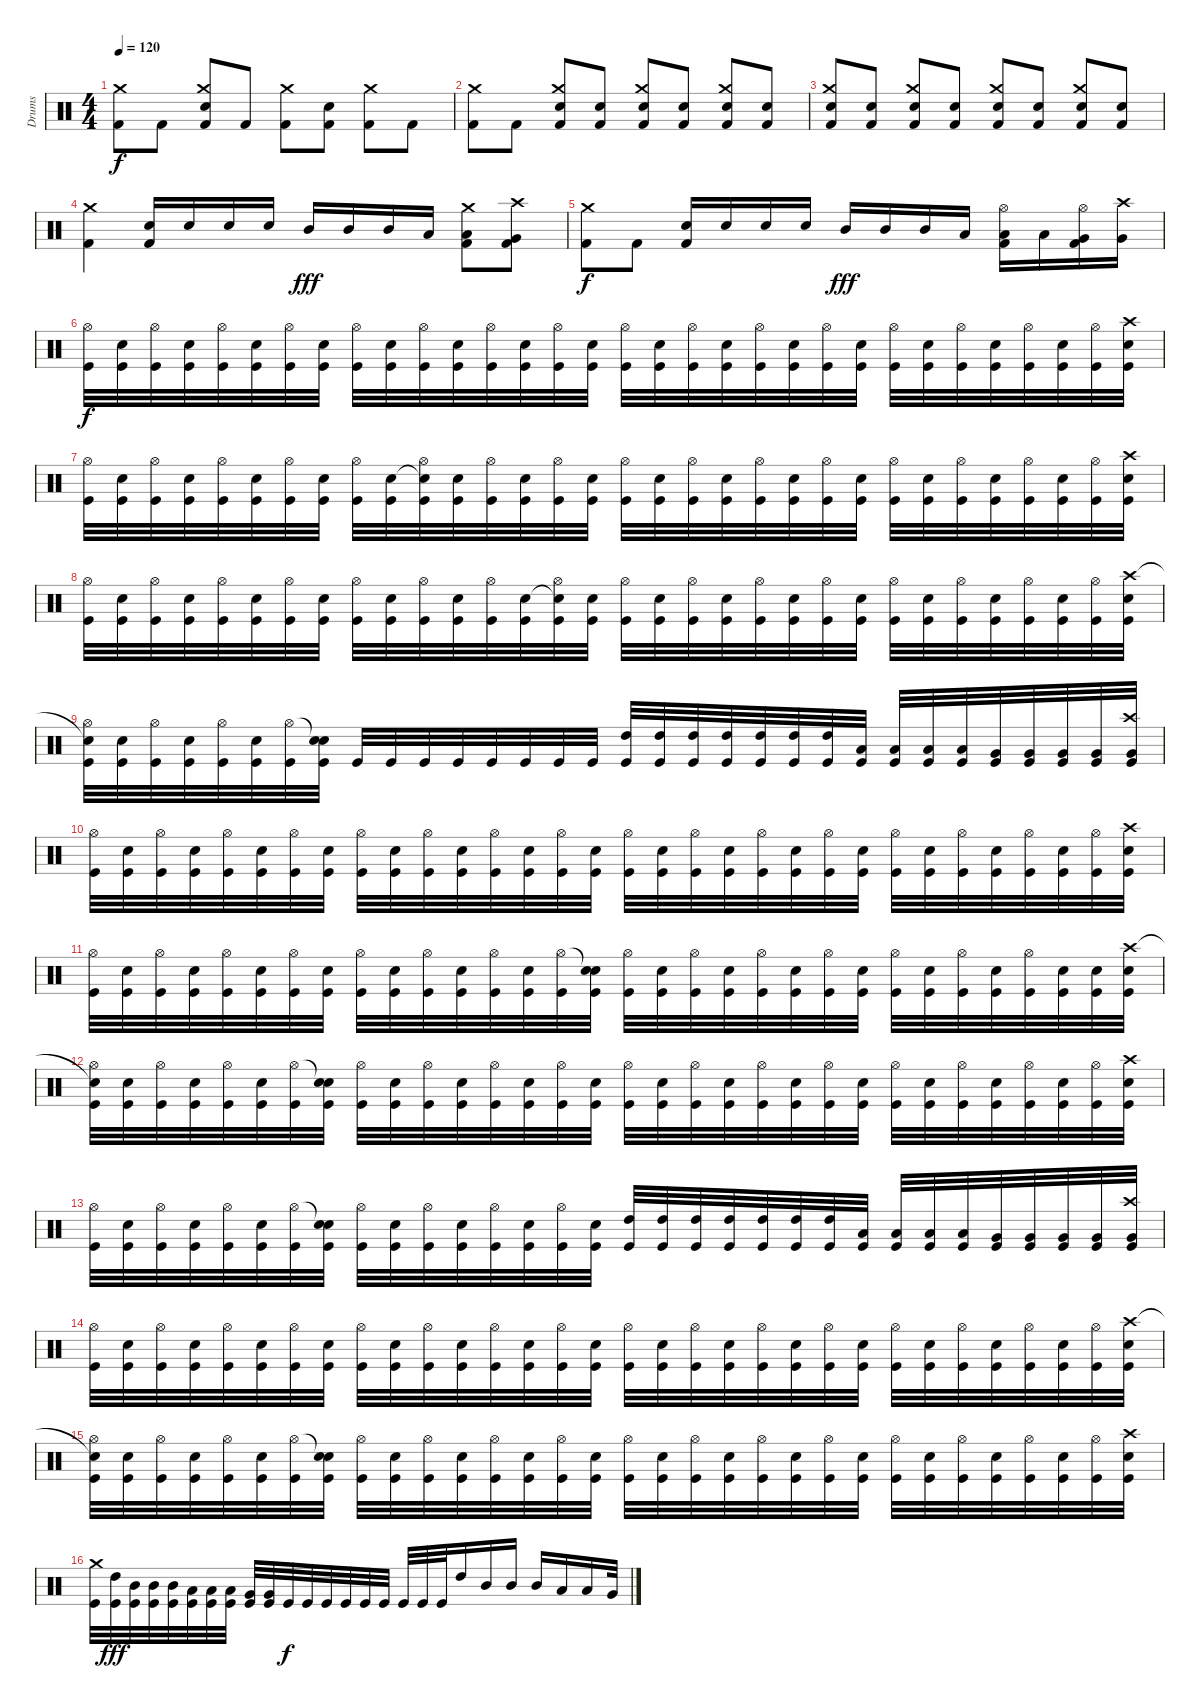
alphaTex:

\track ("Drums" "Drums") {instrument percussion}
\staff {score}
\articulation defaults
\ts (4 4)
\tempo 120
\clef neutral
\ks c
("Kick (hit) 2" "Crash medium (hit)").8{dy f} "Kick (hit) 2".8 ("Kick (hit) 2" "Snare (hit) 2" "Crash medium (hit)").8 "Kick (hit) 2".8 ("Kick (hit) 2" "Crash medium (hit)").8 ("Kick (hit) 2" "Snare (hit) 2").8 ("Kick (hit) 2" "Crash medium (hit)").8 "Kick (hit) 2".8 |
("Kick (hit) 2" "Crash medium (hit)").8 "Kick (hit) 2".8 ("Kick (hit) 2" "Snare (hit) 2" "Crash medium (hit)").8 ("Kick (hit) 2" "Snare (hit) 2").8 ("Kick (hit) 2" "Snare (hit) 2" "Crash medium (hit)").8 ("Kick (hit) 2" "Snare (hit) 2").8 ("Kick (hit) 2" "Snare (hit) 2" "Crash medium (hit)").8 ("Kick (hit) 2" "Snare (hit) 2").8 |
("Kick (hit) 2" "Snare (hit) 2" "Crash medium (hit)").8 ("Kick (hit) 2" "Snare (hit) 2").8 ("Kick (hit) 2" "Snare (hit) 2" "Crash medium (hit)").8 ("Kick (hit) 2" "Snare (hit) 2").8 ("Kick (hit) 2" "Snare (hit) 2" "Crash medium (hit)").8 ("Kick (hit) 2" "Snare (hit) 2").8 ("Kick (hit) 2" "Snare (hit) 2" "Crash medium (hit)").8 ("Kick (hit) 2" "Snare (hit) 2").8 |
("Kick (hit) 2" "Crash medium (hit)").4 ("Kick (hit) 2" "Electric Snare (hit)").16 "Electric Snare (hit)".16 "Electric Snare (hit)".16 "Electric Snare (hit)".16 "Mid Tom (hit)".16{dy fff} "Mid Tom (hit)".16 "Mid Tom (hit)".16 "Low Tom (hit)".16 ("Kick (hit) 2" "Low Tom (hit)" "Crash medium (hit)").8 ("Kick (hit) 2" "Very Low Tom (hit)" "Crash high (hit)").8 |
("Kick (hit) 2" "Crash medium (hit)").8{dy f} "Kick (hit) 2".8 ("Kick (hit) 2" "Electric Snare (hit)").16 "Electric Snare (hit)".16 "Electric Snare (hit)".16 "Electric Snare (hit)".16 "Mid Tom (hit)".16{dy fff} "Mid Tom (hit)".16 "Mid Tom (hit)".16 "Low Tom (hit)".16 ("Kick (hit) 2" "Low Tom (hit)" "Hi-Hat (open)").16 "Low Tom (hit)".16 ("Kick (hit) 2" "Very Low Tom (hit)" "Hi-Hat (open)").16 ("Crash high (hit)" "Very Low Tom (hit)").16 |
("Hi-Hat (open)" "Kick (hit)").32{dy f} ("Snare (hit) 2" "Kick (hit)").32 ("Hi-Hat (open)" "Kick (hit)").32 ("Snare (hit) 2" "Kick (hit)").32 ("Hi-Hat (open)" "Kick (hit)").32 ("Snare (hit) 2" "Kick (hit)").32 ("Hi-Hat (open)" "Kick (hit)").32 ("Snare (hit) 2" "Kick (hit)").32 ("Hi-Hat (open)" "Kick (hit)").32 ("Snare (hit) 2" "Kick (hit)").32 ("Hi-Hat (open)" "Kick (hit)").32 ("Snare (hit) 2" "Kick (hit)").32 ("Hi-Hat (open)" "Kick (hit)").32 ("Snare (hit) 2" "Kick (hit)").32 ("Hi-Hat (open)" "Kick (hit)").32 ("Snare (hit) 2" "Kick (hit)").32 ("Hi-Hat (open)" "Kick (hit)").32 ("Snare (hit) 2" "Kick (hit)").32 ("Hi-Hat (open)" "Kick (hit)").32 ("Snare (hit) 2" "Kick (hit)").32 ("Hi-Hat (open)" "Kick (hit)").32 ("Snare (hit) 2" "Kick (hit)").32 ("Hi-Hat (open)" "Kick (hit)").32 ("Snare (hit) 2" "Kick (hit)").32 ("Hi-Hat (open)" "Kick (hit)").32 ("Snare (hit) 2" "Kick (hit)").32 ("Hi-Hat (open)" "Kick (hit)").32 ("Snare (hit) 2" "Kick (hit)").32 ("Hi-Hat (open)" "Kick (hit)").32 ("Snare (hit) 2" "Kick (hit)").32 ("Hi-Hat (open)" "Kick (hit)").32 ("Crash high (hit)" "Snare (hit) 2" "Kick (hit)").32 |
("Hi-Hat (open)" "Kick (hit)").32 ("Snare (hit) 2" "Kick (hit)").32 ("Hi-Hat (open)" "Kick (hit)").32 ("Snare (hit) 2" "Kick (hit)").32 ("Hi-Hat (open)" "Kick (hit)").32 ("Snare (hit) 2" "Kick (hit)").32 ("Hi-Hat (open)" "Kick (hit)").32 ("Snare (hit) 2" "Kick (hit)").32 ("Hi-Hat (open)" "Kick (hit)").32 ("Snare (hit) 2" "Kick (hit)").32 ("Snare (hit)"{t} "Hi-Hat (open)" "Kick (hit)").32 ("Snare (hit) 2" "Kick (hit)").32 ("Hi-Hat (open)" "Kick (hit)").32 ("Snare (hit) 2" "Kick (hit)").32 ("Hi-Hat (open)" "Kick (hit)").32 ("Snare (hit) 2" "Kick (hit)").32 ("Hi-Hat (open)" "Kick (hit)").32 ("Snare (hit) 2" "Kick (hit)").32 ("Hi-Hat (open)" "Kick (hit)").32 ("Snare (hit) 2" "Kick (hit)").32 ("Hi-Hat (open)" "Kick (hit)").32 ("Snare (hit) 2" "Kick (hit)").32 ("Hi-Hat (open)" "Kick (hit)").32 ("Snare (hit) 2" "Kick (hit)").32 ("Hi-Hat (open)" "Kick (hit)").32 ("Snare (hit) 2" "Kick (hit)").32 ("Hi-Hat (open)" "Kick (hit)").32 ("Snare (hit) 2" "Kick (hit)").32 ("Hi-Hat (open)" "Kick (hit)").32 ("Snare (hit) 2" "Kick (hit)").32 ("Hi-Hat (open)" "Kick (hit)").32 ("Crash high (hit)" "Snare (hit) 2" "Kick (hit)").32 |
("Hi-Hat (open)" "Kick (hit)").32 ("Snare (hit) 2" "Kick (hit)").32 ("Hi-Hat (open)" "Kick (hit)").32 ("Snare (hit) 2" "Kick (hit)").32 ("Hi-Hat (open)" "Kick (hit)").32 ("Snare (hit) 2" "Kick (hit)").32 ("Hi-Hat (open)" "Kick (hit)").32 ("Snare (hit) 2" "Kick (hit)").32 ("Hi-Hat (open)" "Kick (hit)").32 ("Snare (hit) 2" "Kick (hit)").32 ("Hi-Hat (open)" "Kick (hit)").32 ("Snare (hit) 2" "Kick (hit)").32 ("Hi-Hat (open)" "Kick (hit)").32 ("Snare (hit) 2" "Kick (hit)").32 ("Snare (hit)"{t} "Hi-Hat (open)" "Kick (hit)").32 ("Snare (hit) 2" "Kick (hit)").32 ("Hi-Hat (open)" "Kick (hit)").32 ("Snare (hit) 2" "Kick (hit)").32 ("Hi-Hat (open)" "Kick (hit)").32 ("Snare (hit) 2" "Kick (hit)").32 ("Hi-Hat (open)" "Kick (hit)").32 ("Snare (hit) 2" "Kick (hit)").32 ("Hi-Hat (open)" "Kick (hit)").32 ("Snare (hit) 2" "Kick (hit)").32 ("Hi-Hat (open)" "Kick (hit)").32 ("Snare (hit) 2" "Kick (hit)").32 ("Hi-Hat (open)" "Kick (hit)").32 ("Snare (hit) 2" "Kick (hit)").32 ("Hi-Hat (open)" "Kick (hit)").32 ("Snare (hit) 2" "Kick (hit)").32 ("Hi-Hat (open)" "Kick (hit)").32 ("Crash high (hit)" "Snare (hit) 2" "Kick (hit)").32 |
("Snare (hit)"{t} "Hi-Hat (open)" "Kick (hit)").32 ("Snare (hit) 2" "Kick (hit)").32 ("Hi-Hat (open)" "Kick (hit)").32 ("Snare (hit) 2" "Kick (hit)").32 ("Hi-Hat (open)" "Kick (hit)").32 ("Snare (hit) 2" "Kick (hit)").32 ("Hi-Hat (open)" "Kick (hit)").32 ("Snare (hit)"{t} "Snare (hit) 2" "Kick (hit)").32 "Kick (hit)".32 "Kick (hit)".32 "Kick (hit)".32 "Kick (hit)".32 "Kick (hit)".32 "Kick (hit)".32 "Kick (hit)".32 "Kick (hit)".32 ("High Tom (hit)" "Kick (hit)").32 ("High Tom (hit)" "Kick (hit)").32 ("High Tom (hit)" "Kick (hit)").32 ("High Tom (hit)" "Kick (hit)").32 ("High Tom (hit)" "Kick (hit)").32 ("High Tom (hit)" "Kick (hit)").32 ("High Tom (hit)" "Kick (hit)").32 ("Low Tom (hit)" "Kick (hit)").32 ("Low Tom (hit)" "Kick (hit)").32 ("Low Tom (hit)" "Kick (hit)").32 ("Low Tom (hit)" "Kick (hit)").32 ("Very Low Tom (hit)" "Kick (hit)").32 ("Very Low Tom (hit)" "Kick (hit)").32 ("Very Low Tom (hit)" "Kick (hit)").32 ("Very Low Tom (hit)" "Kick (hit)").32 ("Crash high (hit)" "Very Low Tom (hit)" "Kick (hit)").32 |
("Hi-Hat (open)" "Kick (hit)").32 ("Snare (hit) 2" "Kick (hit)").32 ("Hi-Hat (open)" "Kick (hit)").32 ("Snare (hit) 2" "Kick (hit)").32 ("Hi-Hat (open)" "Kick (hit)").32 ("Snare (hit) 2" "Kick (hit)").32 ("Hi-Hat (open)" "Kick (hit)").32 ("Snare (hit) 2" "Kick (hit)").32 ("Hi-Hat (open)" "Kick (hit)").32 ("Snare (hit) 2" "Kick (hit)").32 ("Hi-Hat (open)" "Kick (hit)").32 ("Snare (hit) 2" "Kick (hit)").32 ("Hi-Hat (open)" "Kick (hit)").32 ("Snare (hit) 2" "Kick (hit)").32 ("Hi-Hat (open)" "Kick (hit)").32 ("Snare (hit) 2" "Kick (hit)").32 ("Hi-Hat (open)" "Kick (hit)").32 ("Snare (hit) 2" "Kick (hit)").32 ("Hi-Hat (open)" "Kick (hit)").32 ("Snare (hit) 2" "Kick (hit)").32 ("Hi-Hat (open)" "Kick (hit)").32 ("Snare (hit) 2" "Kick (hit)").32 ("Hi-Hat (open)" "Kick (hit)").32 ("Snare (hit) 2" "Kick (hit)").32 ("Hi-Hat (open)" "Kick (hit)").32 ("Snare (hit) 2" "Kick (hit)").32 ("Hi-Hat (open)" "Kick (hit)").32 ("Snare (hit) 2" "Kick (hit)").32 ("Hi-Hat (open)" "Kick (hit)").32 ("Snare (hit) 2" "Kick (hit)").32 ("Hi-Hat (open)" "Kick (hit)").32 ("Crash high (hit)" "Snare (hit) 2" "Kick (hit)").32 |
("Hi-Hat (open)" "Kick (hit)").32 ("Snare (hit) 2" "Kick (hit)").32 ("Hi-Hat (open)" "Kick (hit)").32 ("Snare (hit) 2" "Kick (hit)").32 ("Hi-Hat (open)" "Kick (hit)").32 ("Snare (hit) 2" "Kick (hit)").32 ("Hi-Hat (open)" "Kick (hit)").32 ("Snare (hit) 2" "Kick (hit)").32 ("Hi-Hat (open)" "Kick (hit)").32 ("Snare (hit) 2" "Kick (hit)").32 ("Hi-Hat (open)" "Kick (hit)").32 ("Snare (hit) 2" "Kick (hit)").32 ("Hi-Hat (open)" "Kick (hit)").32 ("Snare (hit) 2" "Kick (hit)").32 ("Hi-Hat (open)" "Kick (hit)").32 ("Snare (hit)"{t} "Snare (hit) 2" "Kick (hit)").32 ("Hi-Hat (open)" "Kick (hit)").32 ("Snare (hit) 2" "Kick (hit)").32 ("Hi-Hat (open)" "Kick (hit)").32 ("Snare (hit) 2" "Kick (hit)").32 ("Hi-Hat (open)" "Kick (hit)").32 ("Snare (hit) 2" "Kick (hit)").32 ("Hi-Hat (open)" "Kick (hit)").32 ("Snare (hit) 2" "Kick (hit)").32 ("Hi-Hat (open)" "Kick (hit)").32 ("Snare (hit) 2" "Kick (hit)").32 ("Hi-Hat (open)" "Kick (hit)").32 ("Snare (hit) 2" "Kick (hit)").32 ("Hi-Hat (open)" "Kick (hit)").32 ("Snare (hit) 2" "Kick (hit)").32 ("Snare (hit)" "Kick (hit)").32 ("Crash high (hit)" "Snare (hit) 2" "Kick (hit)").32 |
("Snare (hit)"{t} "Hi-Hat (open)" "Kick (hit)").32 ("Snare (hit) 2" "Kick (hit)").32 ("Hi-Hat (open)" "Kick (hit)").32 ("Snare (hit) 2" "Kick (hit)").32 ("Hi-Hat (open)" "Kick (hit)").32 ("Snare (hit) 2" "Kick (hit)").32 ("Hi-Hat (open)" "Kick (hit)").32 ("Snare (hit)"{t} "Snare (hit) 2" "Kick (hit)").32 ("Hi-Hat (open)" "Kick (hit)").32 ("Snare (hit) 2" "Kick (hit)").32 ("Hi-Hat (open)" "Kick (hit)").32 ("Snare (hit) 2" "Kick (hit)").32 ("Hi-Hat (open)" "Kick (hit)").32 ("Snare (hit) 2" "Kick (hit)").32 ("Hi-Hat (open)" "Kick (hit)").32 ("Snare (hit) 2" "Kick (hit)").32 ("Hi-Hat (open)" "Kick (hit)").32 ("Snare (hit) 2" "Kick (hit)").32 ("Hi-Hat (open)" "Kick (hit)").32 ("Snare (hit) 2" "Kick (hit)").32 ("Hi-Hat (open)" "Kick (hit)").32 ("Snare (hit) 2" "Kick (hit)").32 ("Hi-Hat (open)" "Kick (hit)").32 ("Snare (hit) 2" "Kick (hit)").32 ("Hi-Hat (open)" "Kick (hit)").32 ("Snare (hit) 2" "Kick (hit)").32 ("Hi-Hat (open)" "Kick (hit)").32 ("Snare (hit) 2" "Kick (hit)").32 ("Hi-Hat (open)" "Kick (hit)").32 ("Snare (hit) 2" "Kick (hit)").32 ("Hi-Hat (open)" "Kick (hit)").32 ("Crash high (hit)" "Snare (hit) 2" "Kick (hit)").32 |
("Hi-Hat (open)" "Kick (hit)").32 ("Snare (hit) 2" "Kick (hit)").32 ("Hi-Hat (open)" "Kick (hit)").32 ("Snare (hit) 2" "Kick (hit)").32 ("Hi-Hat (open)" "Kick (hit)").32 ("Snare (hit) 2" "Kick (hit)").32 ("Hi-Hat (open)" "Kick (hit)").32 ("Snare (hit)"{t} "Snare (hit) 2" "Kick (hit)").32 ("Hi-Hat (open)" "Kick (hit)").32 ("Snare (hit) 2" "Kick (hit)").32 ("Hi-Hat (open)" "Kick (hit)").32 ("Snare (hit) 2" "Kick (hit)").32 ("Hi-Hat (open)" "Kick (hit)").32 ("Snare (hit) 2" "Kick (hit)").32 ("Hi-Hat (open)" "Kick (hit)").32 ("Snare (hit) 2" "Kick (hit)").32 ("High Tom (hit)" "Kick (hit)").32 ("High Tom (hit)" "Kick (hit)").32 ("High Tom (hit)" "Kick (hit)").32 ("High Tom (hit)" "Kick (hit)").32 ("High Tom (hit)" "Kick (hit)").32 ("High Tom (hit)" "Kick (hit)").32 ("High Tom (hit)" "Kick (hit)").32 ("Low Tom (hit)" "Kick (hit)").32 ("Low Tom (hit)" "Kick (hit)").32 ("Low Tom (hit)" "Kick (hit)").32 ("Low Tom (hit)" "Kick (hit)").32 ("Very Low Tom (hit)" "Kick (hit)").32 ("Very Low Tom (hit)" "Kick (hit)").32 ("Very Low Tom (hit)" "Kick (hit)").32 ("Very Low Tom (hit)" "Kick (hit)").32 ("Crash high (hit)" "Very Low Tom (hit)" "Kick (hit)").32 |
("Hi-Hat (open)" "Kick (hit)").32 ("Snare (hit) 2" "Kick (hit)").32 ("Hi-Hat (open)" "Kick (hit)").32 ("Snare (hit) 2" "Kick (hit)").32 ("Hi-Hat (open)" "Kick (hit)").32 ("Snare (hit) 2" "Kick (hit)").32 ("Hi-Hat (open)" "Kick (hit)").32 ("Snare (hit) 2" "Kick (hit)").32 ("Hi-Hat (open)" "Kick (hit)").32 ("Snare (hit) 2" "Kick (hit)").32 ("Hi-Hat (open)" "Kick (hit)").32 ("Snare (hit) 2" "Kick (hit)").32 ("Hi-Hat (open)" "Kick (hit)").32 ("Snare (hit) 2" "Kick (hit)").32 ("Hi-Hat (open)" "Kick (hit)").32 ("Snare (hit) 2" "Kick (hit)").32 ("Hi-Hat (open)" "Kick (hit)").32 ("Snare (hit) 2" "Kick (hit)").32 ("Hi-Hat (open)" "Kick (hit)").32 ("Snare (hit) 2" "Kick (hit)").32 ("Hi-Hat (open)" "Kick (hit)").32 ("Snare (hit) 2" "Kick (hit)").32 ("Hi-Hat (open)" "Kick (hit)").32 ("Snare (hit) 2" "Kick (hit)").32 ("Hi-Hat (open)" "Kick (hit)").32 ("Snare (hit) 2" "Kick (hit)").32 ("Hi-Hat (open)" "Kick (hit)").32 ("Snare (hit) 2" "Kick (hit)").32 ("Hi-Hat (open)" "Kick (hit)").32 ("Snare (hit) 2" "Kick (hit)").32 ("Hi-Hat (open)" "Kick (hit)").32 ("Crash high (hit)" "Snare (hit) 2" "Kick (hit)").32 |
("Snare (hit)"{t} "Hi-Hat (open)" "Kick (hit)").32 ("Snare (hit) 2" "Kick (hit)").32 ("Hi-Hat (open)" "Kick (hit)").32 ("Snare (hit) 2" "Kick (hit)").32 ("Hi-Hat (open)" "Kick (hit)").32 ("Snare (hit) 2" "Kick (hit)").32 ("Hi-Hat (open)" "Kick (hit)").32 ("Snare (hit)"{t} "Snare (hit) 2" "Kick (hit)").32 ("Hi-Hat (open)" "Kick (hit)").32 ("Snare (hit) 2" "Kick (hit)").32 ("Hi-Hat (open)" "Kick (hit)").32 ("Snare (hit) 2" "Kick (hit)").32 ("Hi-Hat (open)" "Kick (hit)").32 ("Snare (hit) 2" "Kick (hit)").32 ("Hi-Hat (open)" "Kick (hit)").32 ("Snare (hit) 2" "Kick (hit)").32 ("Hi-Hat (open)" "Kick (hit)").32 ("Snare (hit) 2" "Kick (hit)").32 ("Hi-Hat (open)" "Kick (hit)").32 ("Snare (hit) 2" "Kick (hit)").32 ("Hi-Hat (open)" "Kick (hit)").32 ("Snare (hit) 2" "Kick (hit)").32 ("Hi-Hat (open)" "Kick (hit)").32 ("Snare (hit) 2" "Kick (hit)").32 ("Hi-Hat (open)" "Kick (hit)").32 ("Snare (hit) 2" "Kick (hit)").32 ("Hi-Hat (open)" "Kick (hit)").32 ("Snare (hit) 2" "Kick (hit)").32 ("Hi-Hat (open)" "Kick (hit)").32 ("Snare (hit) 2" "Kick (hit)").32 ("Hi-Hat (open)" "Kick (hit)").32 ("Crash high (hit)" "Snare (hit) 2" "Kick (hit)").32 |
("Crash medium (hit)" "Kick (hit)").32 ("High Tom (hit)" "Kick (hit)").32{dy fff} ("Mid Tom (hit)" "Kick (hit)").32 ("Mid Tom (hit)" "Kick (hit)").32 ("Mid Tom (hit)" "Kick (hit)").32 ("Low Tom (hit)" "Kick (hit)").32 ("Low Tom (hit)" "Kick (hit)").32 ("Low Tom (hit)" "Kick (hit)").32 ("Very Low Tom (hit)" "Kick (hit)").32 ("Very Low Tom (hit)" "Kick (hit)").32 "Kick (hit)".32{dy f} "Kick (hit)".32 "Kick (hit)".32 "Kick (hit)".32 "Kick (hit)".32 "Kick (hit)".32 "Kick (hit)".32 "Kick (hit)".32 "Kick (hit)".32 "High Tom (hit)".16 "Mid Tom (hit)".16 "Mid Tom (hit)".16 "Mid Tom (hit)".16 "Low Tom (hit)".16 "Low Tom (hit)".16 "Very Low Tom (hit)".32
